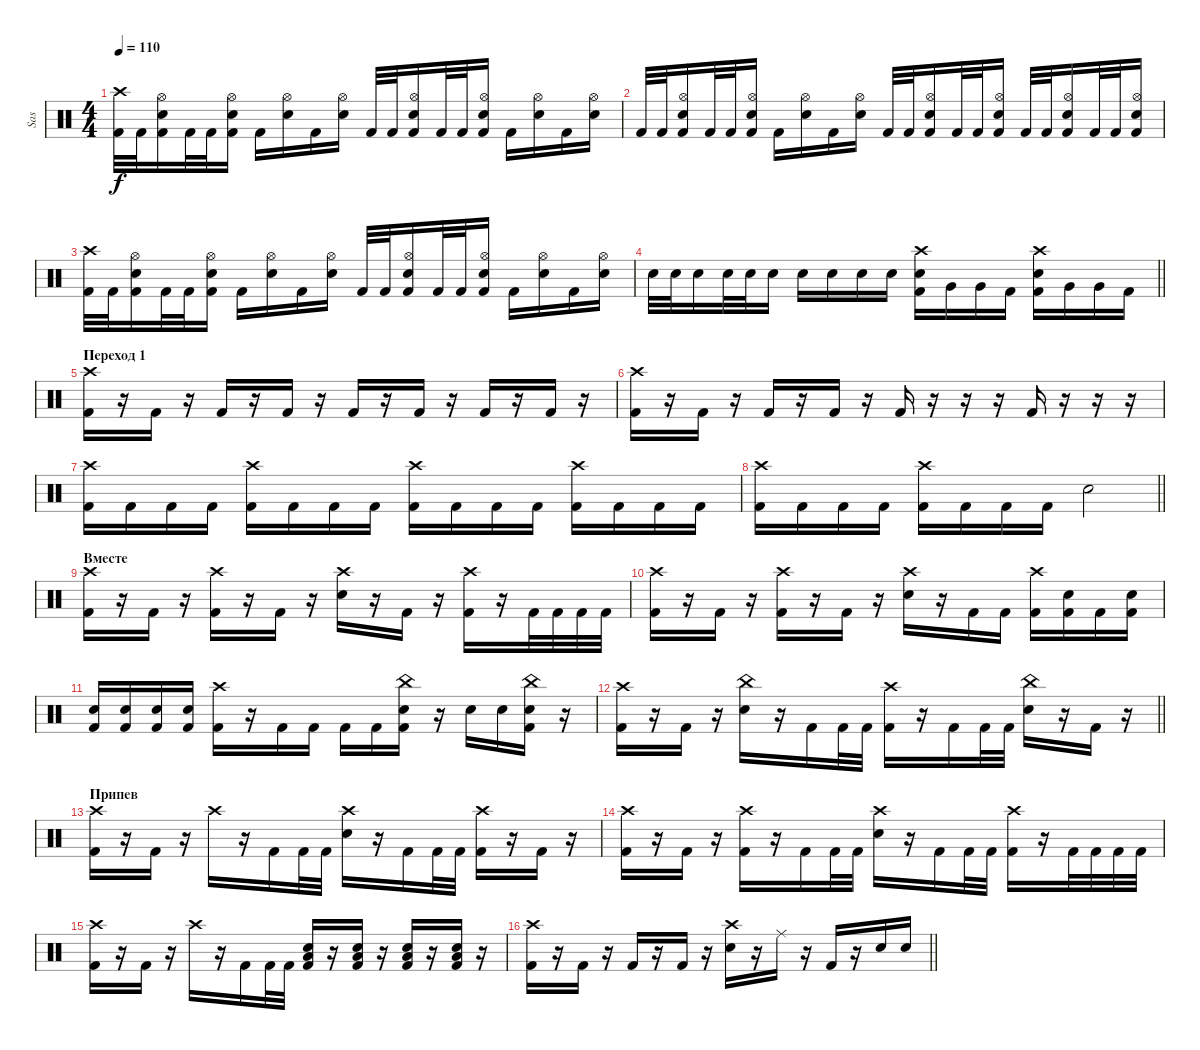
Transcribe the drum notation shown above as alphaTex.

\track ("Sas" "Sas") {instrument percussion}
\staff {score}
\articulation defaults
\ts (4 4)
\tempo 110
\clef neutral
\ks c
("Crash high (hit)" "Kick (hit) 2").32{dy f} "Kick (hit) 2".32 ("Hi-Hat (open)" "Snare (hit) 2" "Kick (hit) 2").16 "Kick (hit) 2".32 "Kick (hit) 2".32 ("Hi-Hat (open)" "Snare (hit) 2" "Kick (hit) 2").16 "Kick (hit) 2".16 ("Hi-Hat (open)" "Snare (hit) 2").16 "Kick (hit) 2".16 ("Hi-Hat (open)" "Snare (hit) 2").16 "Kick (hit) 2".32 "Kick (hit) 2".32 ("Hi-Hat (open)" "Snare (hit) 2" "Kick (hit) 2").16 "Kick (hit) 2".32 "Kick (hit) 2".32 ("Hi-Hat (open)" "Snare (hit) 2" "Kick (hit) 2").16 "Kick (hit) 2".16 ("Hi-Hat (open)" "Snare (hit) 2").16 "Kick (hit) 2".16 ("Hi-Hat (open)" "Snare (hit) 2").16 |
"Kick (hit) 2".32 "Kick (hit) 2".32 ("Hi-Hat (open)" "Snare (hit) 2" "Kick (hit) 2").16 "Kick (hit) 2".32 "Kick (hit) 2".32 ("Hi-Hat (open)" "Snare (hit) 2" "Kick (hit) 2").16 "Kick (hit) 2".16 ("Hi-Hat (open)" "Snare (hit) 2").16 "Kick (hit) 2".16 ("Hi-Hat (open)" "Snare (hit) 2").16 "Kick (hit) 2".32 "Kick (hit) 2".32 ("Hi-Hat (open)" "Snare (hit) 2" "Kick (hit) 2").16 "Kick (hit) 2".32 "Kick (hit) 2".32 ("Hi-Hat (open)" "Snare (hit) 2" "Kick (hit) 2").16 "Kick (hit) 2".32 "Kick (hit) 2".32 ("Hi-Hat (open)" "Snare (hit) 2" "Kick (hit) 2").16 "Kick (hit) 2".32 "Kick (hit) 2".32 ("Hi-Hat (open)" "Snare (hit) 2" "Kick (hit) 2").16 |
("Crash high (hit)" "Kick (hit) 2").32 "Kick (hit) 2".32 ("Hi-Hat (open)" "Snare (hit) 2" "Kick (hit) 2").16 "Kick (hit) 2".32 "Kick (hit) 2".32 ("Hi-Hat (open)" "Snare (hit) 2" "Kick (hit) 2").16 "Kick (hit) 2".16 ("Hi-Hat (open)" "Snare (hit) 2").16 "Kick (hit) 2".16 ("Hi-Hat (open)" "Snare (hit) 2").16 "Kick (hit) 2".32 "Kick (hit) 2".32 ("Hi-Hat (open)" "Snare (hit) 2" "Kick (hit) 2").16 "Kick (hit) 2".32 "Kick (hit) 2".32 ("Hi-Hat (open)" "Snare (hit) 2" "Kick (hit) 2").16 "Kick (hit) 2".16 ("Hi-Hat (open)" "Snare (hit) 2").16 "Kick (hit) 2".16 ("Hi-Hat (open)" "Snare (hit) 2").16 |
\barLineRight lightlight "Snare (hit) 2".32 "Snare (hit) 2".32 "Snare (hit) 2".16 "Snare (hit) 2".32 "Snare (hit) 2".32 "Snare (hit) 2".16 "Snare (hit) 2".16 "Snare (hit) 2".16 "Snare (hit) 2".16 "Snare (hit) 2".16
("Crash high (hit)" "Snare (hit) 2" "Kick (hit) 2").16 "Very Low Tom (hit)".16 "Very Low Tom (hit)".16 "Kick (hit) 2".16 ("Crash high (hit)" "Snare (hit) 2" "Kick (hit) 2").16 "Very Low Tom (hit)".16 "Very Low Tom (hit)".16 "Kick (hit) 2".16 |
\section ("" "Переход 1")
("Crash high (hit)" "Kick (hit) 2").16 r.16 "Kick (hit) 2".16 r.16 "Kick (hit) 2".16 r.16 "Kick (hit) 2".16 r.16 "Kick (hit) 2".16 r.16 "Kick (hit) 2".16 r.16 "Kick (hit) 2".16 r.16 "Kick (hit) 2".16 r.16 |
("Crash high (hit)" "Kick (hit) 2").16 r.16 "Kick (hit) 2".16 r.16 "Kick (hit) 2".16 r.16 "Kick (hit) 2".16 r.16 "Kick (hit) 2".16 r.16 r.16 r.16 "Kick (hit) 2".16 r.16 r.16 r.16 |
("Crash high (hit)" "Kick (hit) 2").16 "Kick (hit) 2".16 "Kick (hit) 2".16 "Kick (hit) 2".16 ("Crash high (hit)" "Kick (hit) 2").16 "Kick (hit) 2".16 "Kick (hit) 2".16 "Kick (hit) 2".16 ("Crash high (hit)" "Kick (hit) 2").16 "Kick (hit) 2".16 "Kick (hit) 2".16 "Kick (hit) 2".16 ("Crash high (hit)" "Kick (hit) 2").16 "Kick (hit) 2".16 "Kick (hit) 2".16 "Kick (hit) 2".16 |
\barLineRight lightlight
("Crash high (hit)" "Kick (hit) 2").16 "Kick (hit) 2".16 "Kick (hit) 2".16 "Kick (hit) 2".16 ("Crash high (hit)" "Kick (hit) 2").16 "Kick (hit) 2".16 "Kick (hit) 2".16 "Kick (hit) 2".16 "Snare (hit) 2".2 |
\section ("" "Вместе")
("Crash high (hit)" "Kick (hit) 2").16 r.16 "Kick (hit) 2".16 r.16 ("Crash high (hit)" "Kick (hit) 2").16 r.16 "Kick (hit) 2".16 r.16 ("Crash high (hit)" "Snare (hit) 2").16 r.16 "Kick (hit) 2".16 r.16 ("Crash high (hit)" "Kick (hit) 2").16 r.16 "Kick (hit) 2".32 "Kick (hit) 2".32 "Kick (hit) 2".32 "Kick (hit) 2".32 |
("Crash high (hit)" "Kick (hit) 2").16 r.16 "Kick (hit) 2".16 r.16 ("Crash high (hit)" "Kick (hit) 2").16 r.16 "Kick (hit) 2".16 r.16 ("Crash high (hit)" "Snare (hit) 2").16 r.16 "Kick (hit) 2".16 "Kick (hit) 2".16 ("Crash high (hit)" "Kick (hit) 2").16 ("Snare (hit) 2" "Kick (hit) 2").16 "Kick (hit) 2".16 ("Snare (hit) 2" "Kick (hit) 2").16 |
("Snare (hit) 2" "Kick (hit) 2").16 ("Snare (hit) 2" "Kick (hit) 2").16 ("Snare (hit) 2" "Kick (hit) 2").16 ("Snare (hit) 2" "Kick (hit) 2").16 ("Crash high (hit)" "Kick (hit) 2").16 r.16 "Kick (hit) 2".16 "Kick (hit) 2".16 "Kick (hit) 2".16 "Kick (hit) 2".16 ("China (hit)" "Snare (hit) 2" "Kick (hit) 2").16 r.16 "Snare (hit) 2".16 "Snare (hit) 2".16 ("China (hit)" "Snare (hit) 2" "Kick (hit) 2").16 r.16 |
\barLineRight lightlight
("Crash high (hit)" "Kick (hit) 2").16 r.16 "Kick (hit) 2".16 r.16 ("China (hit)" "Snare (hit) 2").16 r.16 "Kick (hit) 2".16 "Kick (hit) 2".32 "Kick (hit) 2".32 ("Crash high (hit)" "Kick (hit) 2").16 r.16 "Kick (hit) 2".16 "Kick (hit) 2".32 "Kick (hit) 2".32 ("China (hit)" "Snare (hit) 2").16 r.16 "Kick (hit) 2".16 r.16 |
\section ("" "Припев")
("Crash high (hit)" "Kick (hit) 2").16 r.16 "Kick (hit) 2".16 r.16 "Crash high (hit)".16 r.16 "Kick (hit) 2".16 "Kick (hit) 2".32 "Kick (hit) 2".32 ("Crash high (hit)" "Snare (hit) 2").16 r.16 "Kick (hit) 2".16 "Kick (hit) 2".32 "Kick (hit) 2".32 ("Crash high (hit)" "Kick (hit) 2").16 r.16 "Kick (hit) 2".16 r.16 |
("Crash high (hit)" "Kick (hit) 2").16 r.16 "Kick (hit) 2".16 r.16 ("Crash high (hit)" "Kick (hit) 2").16 r.16 "Kick (hit) 2".16 "Kick (hit) 2".32 "Kick (hit) 2".32 ("Crash high (hit)" "Snare (hit) 2").16 r.16 "Kick (hit) 2".16 "Kick (hit) 2".32 "Kick (hit) 2".32 ("Crash high (hit)" "Kick (hit) 2").16 r.16 "Kick (hit) 2".32 "Kick (hit) 2".32 "Kick (hit) 2".32 "Kick (hit) 2".32 |
("Crash high (hit)" "Kick (hit) 2").16 r.16 "Kick (hit) 2".16 r.16 "Crash high (hit)".16 r.16 "Kick (hit) 2".16 "Kick (hit) 2".32 "Kick (hit) 2".32 ("Low Tom (hit)" "Snare (hit) 2" "Kick (hit) 2").16 r.16 ("Low Tom (hit)" "Snare (hit) 2" "Kick (hit) 2").16 r.16 ("Low Tom (hit)" "Snare (hit) 2" "Kick (hit) 2").16 r.16 ("Low Tom (hit)" "Snare (hit) 2" "Kick (hit) 2").16 r.16 |
\barLineRight lightlight
("Crash high (hit)" "Kick (hit) 2").16 r.16 "Kick (hit) 2".16 r.16 "Kick (hit) 2".16 r.16 "Kick (hit) 2".16 r.16 ("Crash high (hit)" "Snare (hit) 2").16 r.16 "Ride (middle)".16 r.16 "Kick (hit) 2".16 r.16 "Snare (hit) 2".16 "Snare (hit) 2".16
